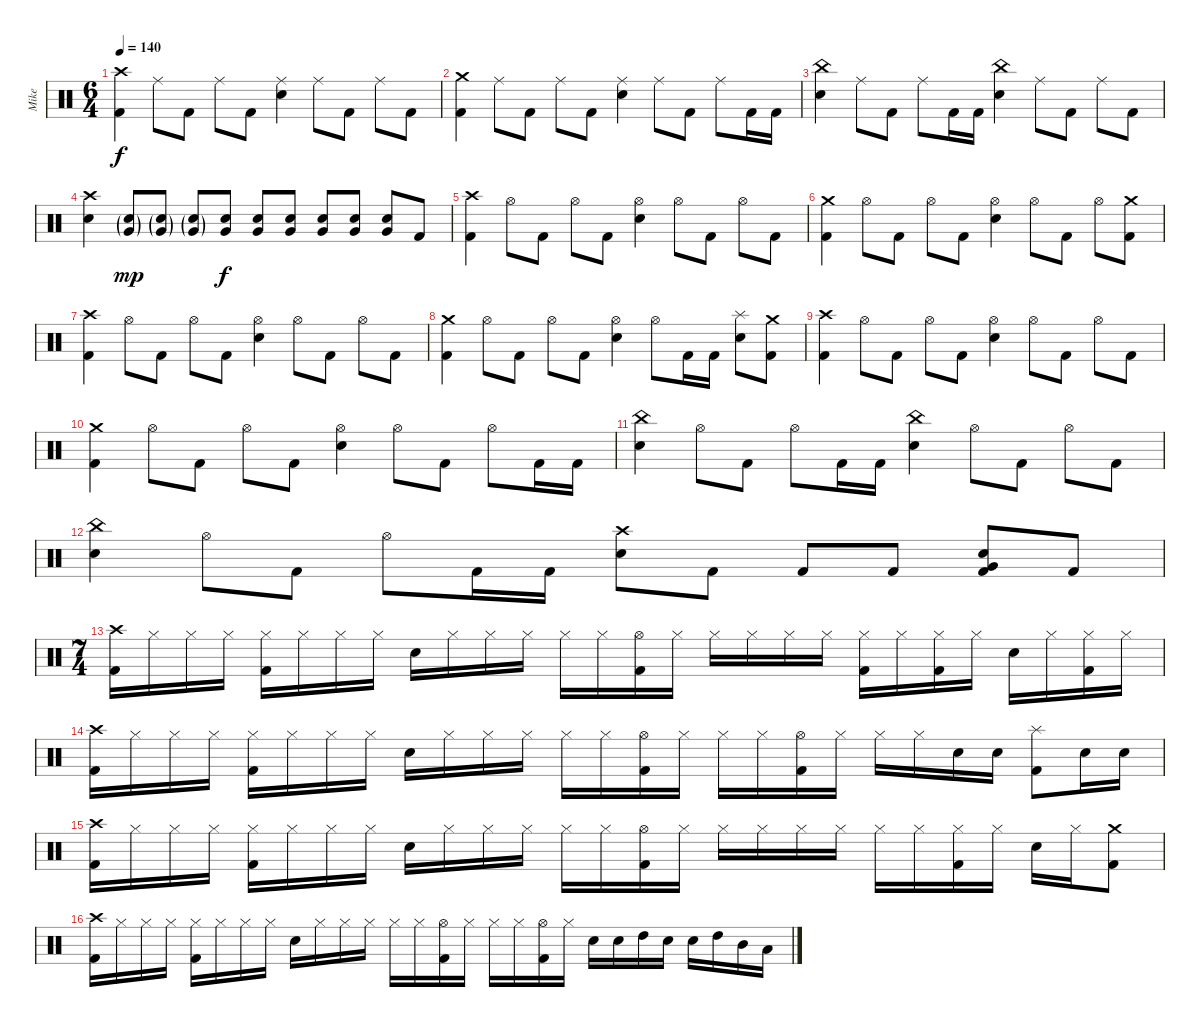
\track ("Mike" "Mike") {instrument percussion}
\staff {score}
\articulation defaults
\ts (6 4)
\tempo 140
\clef neutral
\ks c
("Kick (hit) 2" "Crash high (hit)").4{dy f} "Ride (middle)".8 "Kick (hit) 2".8 "Ride (middle)".8 "Kick (hit) 2".8 ("Electric Snare (hit)" "Ride (middle)").4 "Ride (middle)".8 "Kick (hit) 2".8 "Ride (middle)".8 "Kick (hit) 2".8 |
("Kick (hit) 2" "Crash medium (hit)").4 "Ride (middle)".8 "Kick (hit) 2".8 "Ride (middle)".8 "Kick (hit) 2".8 ("Electric Snare (hit)" "Ride (middle)").4 "Ride (middle)".8 "Kick (hit) 2".8 "Ride (middle)".8 "Kick (hit) 2".16 "Kick (hit) 2".16 |
("Electric Snare (hit)" "China (hit)").4 "Ride (middle)".8 "Kick (hit) 2".8 "Ride (middle)".8 "Kick (hit) 2".16 "Kick (hit) 2".16 ("Electric Snare (hit)" "China (hit)").4 "Ride (middle)".8 "Kick (hit) 2".8 "Ride (middle)".8 "Kick (hit) 2".8 |
("Electric Snare (hit)" "Crash high (hit)").4 ("Electric Snare (hit)"{g} "Very Low Tom (hit)"{g}).8{dy mp} ("Electric Snare (hit)"{g} "Very Low Tom (hit)"{g}).8 ("Electric Snare (hit)"{g} "Very Low Tom (hit)"{g}).8 ("Electric Snare (hit)" "Very Low Tom (hit)").8{dy f} ("Electric Snare (hit)" "Very Low Tom (hit)").8 ("Electric Snare (hit)" "Very Low Tom (hit)").8 ("Electric Snare (hit)" "Very Low Tom (hit)").8 ("Electric Snare (hit)" "Very Low Tom (hit)").8 ("Electric Snare (hit)" "Very Low Tom (hit)").8 "Kick (hit) 2".8 |
("Kick (hit) 2" "Crash high (hit)").4 "Hi-Hat (open)".8 "Kick (hit) 2".8 "Hi-Hat (open)".8 "Kick (hit) 2".8 ("Electric Snare (hit)" "Hi-Hat (open)").4 "Hi-Hat (open)".8 "Kick (hit) 2".8 "Hi-Hat (open)".8 "Kick (hit) 2".8 |
("Kick (hit) 2" "Crash medium (hit)").4 "Hi-Hat (open)".8 "Kick (hit) 2".8 "Hi-Hat (open)".8 "Kick (hit) 2".8 ("Electric Snare (hit)" "Hi-Hat (open)").4 "Hi-Hat (open)".8 "Kick (hit) 2".8 "Hi-Hat (open)".8 ("Kick (hit) 2" "Crash medium (hit)").8 |
("Kick (hit) 2" "Crash high (hit)").4 "Hi-Hat (open)".8 "Kick (hit) 2".8 "Hi-Hat (open)".8 "Kick (hit) 2".8 ("Electric Snare (hit)" "Hi-Hat (open)").4 "Hi-Hat (open)".8 "Kick (hit) 2".8 "Hi-Hat (open)".8 "Kick (hit) 2".8 |
("Kick (hit) 2" "Crash medium (hit)").4 "Hi-Hat (open)".8 "Kick (hit) 2".8 "Hi-Hat (open)".8 "Kick (hit) 2".8 ("Electric Snare (hit)" "Hi-Hat (open)").4 "Hi-Hat (open)".8 "Kick (hit) 2".16 "Kick (hit) 2".16 ("Electric Snare (hit)" "Splash (hit)").8 ("Kick (hit) 2" "Crash medium (hit)").8 |
("Kick (hit) 2" "Crash high (hit)").4 "Hi-Hat (open)".8 "Kick (hit) 2".8 "Hi-Hat (open)".8 "Kick (hit) 2".8 ("Electric Snare (hit)" "Hi-Hat (open)").4 "Hi-Hat (open)".8 "Kick (hit) 2".8 "Hi-Hat (open)".8 "Kick (hit) 2".8 |
("Kick (hit) 2" "Crash medium (hit)").4 "Hi-Hat (open)".8 "Kick (hit) 2".8 "Hi-Hat (open)".8 "Kick (hit) 2".8 ("Electric Snare (hit)" "Hi-Hat (open)").4 "Hi-Hat (open)".8 "Kick (hit) 2".8 "Hi-Hat (open)".8 "Kick (hit) 2".16 "Kick (hit) 2".16 |
("Electric Snare (hit)" "China (hit)").4 "Hi-Hat (open)".8 "Kick (hit) 2".8 "Hi-Hat (open)".8 "Kick (hit) 2".16 "Kick (hit) 2".16 ("Electric Snare (hit)" "China (hit)").4 "Hi-Hat (open)".8 "Kick (hit) 2".8 "Hi-Hat (open)".8 "Kick (hit) 2".8 |
("Electric Snare (hit)" "China (hit)").4 "Hi-Hat (open)".8 "Kick (hit) 2".8 "Hi-Hat (open)".8 "Kick (hit) 2".16 "Kick (hit) 2".16 ("Electric Snare (hit)" "Crash high (hit)").8 "Kick (hit) 2".8 "Kick (hit) 2".8 "Kick (hit) 2".8 ("Kick (hit) 2" "Electric Snare (hit)" "Very Low Tom (hit)").8 "Kick (hit) 2".8 |
\ts (7 4)
("Kick (hit) 2" "Crash high (hit)").16 "Hi-Hat (closed)".16 "Hi-Hat (closed)".16 "Hi-Hat (closed)".16 ("Kick (hit) 2" "Hi-Hat (closed)").16 "Hi-Hat (closed)".16 "Hi-Hat (closed)".16 "Hi-Hat (closed)".16 "Electric Snare (hit)".16 "Hi-Hat (closed)".16 "Hi-Hat (closed)".16 "Hi-Hat (closed)".16 "Hi-Hat (closed)".16 "Hi-Hat (closed)".16 ("Kick (hit) 2" "Hi-Hat (open)").16 "Hi-Hat (closed)".16 "Hi-Hat (closed)".16 "Hi-Hat (closed)".16 "Hi-Hat (closed)".16 "Hi-Hat (closed)".16 ("Kick (hit) 2" "Hi-Hat (closed)").16 "Hi-Hat (closed)".16 ("Kick (hit) 2" "Hi-Hat (closed)").16 "Hi-Hat (closed)".16 "Electric Snare (hit)".16 "Hi-Hat (closed)".16 ("Kick (hit) 2" "Hi-Hat (closed)").16 "Hi-Hat (closed)".16 |
("Kick (hit) 2" "Crash high (hit)").16 "Hi-Hat (closed)".16 "Hi-Hat (closed)".16 "Hi-Hat (closed)".16 ("Kick (hit) 2" "Hi-Hat (closed)").16 "Hi-Hat (closed)".16 "Hi-Hat (closed)".16 "Hi-Hat (closed)".16 "Electric Snare (hit)".16 "Hi-Hat (closed)".16 "Hi-Hat (closed)".16 "Hi-Hat (closed)".16 "Hi-Hat (closed)".16 "Hi-Hat (closed)".16 ("Kick (hit) 2" "Hi-Hat (open)").16 "Hi-Hat (closed)".16 "Hi-Hat (closed)".16 "Hi-Hat (closed)".16 ("Kick (hit) 2" "Hi-Hat (open)").16 "Hi-Hat (closed)".16 "Hi-Hat (closed)".16 "Hi-Hat (closed)".16 "Electric Snare (hit)".16 "Electric Snare (hit)".16 ("Kick (hit) 2" "Splash (hit)").8 "Electric Snare (hit)".16 "Electric Snare (hit)".16 |
("Kick (hit) 2" "Crash high (hit)").16 "Hi-Hat (closed)".16 "Hi-Hat (closed)".16 "Hi-Hat (closed)".16 ("Kick (hit) 2" "Hi-Hat (closed)").16 "Hi-Hat (closed)".16 "Hi-Hat (closed)".16 "Hi-Hat (closed)".16 "Electric Snare (hit)".16 "Hi-Hat (closed)".16 "Hi-Hat (closed)".16 "Hi-Hat (closed)".16 "Hi-Hat (closed)".16 "Hi-Hat (closed)".16 ("Kick (hit) 2" "Hi-Hat (open)").16 "Hi-Hat (closed)".16 "Hi-Hat (closed)".16 "Hi-Hat (closed)".16 "Hi-Hat (closed)".16 "Hi-Hat (closed)".16 "Hi-Hat (closed)".16 "Hi-Hat (closed)".16 ("Kick (hit) 2" "Hi-Hat (closed)").16 "Hi-Hat (closed)".16 "Electric Snare (hit)".16 "Hi-Hat (closed)".16 ("Kick (hit) 2" "Crash medium (hit)").8 |
("Kick (hit) 2" "Crash high (hit)").16 "Hi-Hat (closed)".16 "Hi-Hat (closed)".16 "Hi-Hat (closed)".16 ("Kick (hit) 2" "Hi-Hat (closed)").16 "Hi-Hat (closed)".16 "Hi-Hat (closed)".16 "Hi-Hat (closed)".16 "Electric Snare (hit)".16 "Hi-Hat (closed)".16 "Hi-Hat (closed)".16 "Hi-Hat (closed)".16 "Hi-Hat (closed)".16 "Hi-Hat (closed)".16 ("Kick (hit) 2" "Hi-Hat (open)").16 "Hi-Hat (closed)".16 "Hi-Hat (closed)".16 "Hi-Hat (closed)".16 ("Kick (hit) 2" "Hi-Hat (open)").16 "Hi-Hat (closed)".16 "Electric Snare (hit)".16 "Electric Snare (hit)".16 "High Tom (hit)".16 "Electric Snare (hit)".16 "Electric Snare (hit)".16 "High Tom (hit)".16 "Mid Tom (hit)".16 "Low Tom (hit)".16
